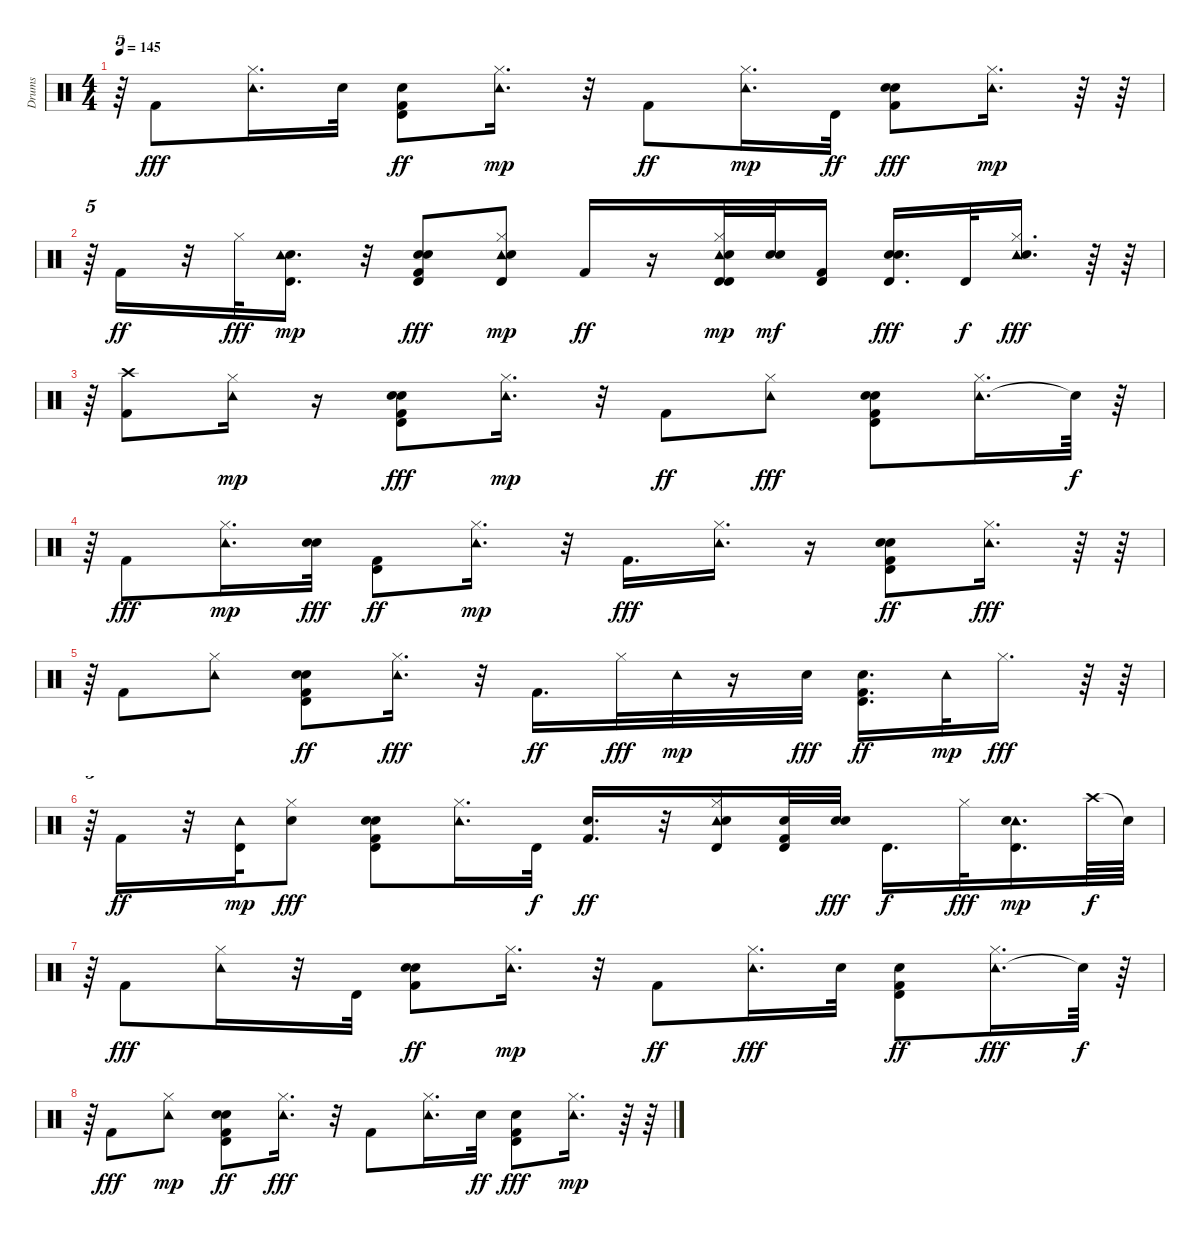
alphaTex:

\track ("Drums" "Drums") {instrument percussion}
\staff {score}
\articulation defaults
\ts (4 4)
\tempo 145
\clef neutral
\ks c
r.64{tu (5 4) dy fff} "Kick (hit) 2".8 ("Tambourine (hit)" "Hi-Hat (closed)").16{d} "Hand Clap (hit)".32 ("Kick (hit) 2" "Snare (hit) 2" "Timbale high (hit)").8{dy ff} ("Hi-Hat (closed)" "Tambourine (hit)").16{d dy mp} r.32 "Kick (hit) 2".8{dy ff} ("Hi-Hat (closed)" "Tambourine (hit)").16{d dy mp} "Timbale high (hit)".32{dy ff} ("Kick (hit) 2" "Snare (hit) 2" "Hand Clap (hit)").8{dy fff} ("Hi-Hat (closed)" "Tambourine (hit)").16{d dy mp} r.64 r.64 |
r.64{tu (5 4)} "Kick (hit) 2".16{dy ff} r.32 "Hi-Hat (closed)".32{dy fff} ("Timbale high (hit)" "Snare (hit) 2" "Tambourine (hit)").16{d dy mp} r.32 ("Kick (hit) 2" "Snare (hit) 2" "Timbale high (hit)" "Hand Clap (hit)").8{dy fff} ("Hi-Hat (closed)" "Tambourine (hit)" "Timbale high (hit)" "Snare (hit) 2").8{dy mp} "Kick (hit) 2".16{dy ff} r.16 ("Tambourine (hit)" "Hi-Hat (closed)" "Snare (hit) 2" "Timbale high (hit)" "Timbale high (hit)").32{dy mp} ("Snare (hit) 2" "Snare (hit) 2").32{dy mf} ("Kick (hit) 2" "Timbale high (hit)").16 ("Timbale high (hit)" "Snare (hit) 2" "Hand Clap (hit)").16{d dy fff} "Timbale high (hit)".32{dy f} ("Tambourine (hit)" "Snare (hit) 2" "Hi-Hat (closed)").16{d dy fff} r.64 r.64 |
r.64{tu (5 4)} ("Kick (hit) 2" "Crash high (hit)").8 ("Hi-Hat (closed)" "Tambourine (hit)").16{dy mp} r.16 ("Snare (hit) 2" "Timbale high (hit)" "Kick (hit) 2" "Hand Clap (hit)").8{dy fff} ("Hi-Hat (closed)" "Tambourine (hit)").16{d dy mp} r.32 "Kick (hit) 2".8{dy ff} ("Tambourine (hit)" "Hi-Hat (closed)").8{dy fff} ("Snare (hit) 2" "Timbale high (hit)" "Kick (hit) 2" "Hand Clap (hit)").8 ("Tambourine (hit)" "Hi-Hat (closed)").16{d} "Snare (hit)"{t}.64{dy f} r.64 |
r.64{tu (5 4)} "Kick (hit) 2".8{dy fff} ("Hi-Hat (closed)" "Tambourine (hit)").16{d dy mp} ("Snare (hit) 2" "Hand Clap (hit)").32{dy fff} ("Kick (hit) 2" "Timbale high (hit)").8{dy ff} ("Hi-Hat (closed)" "Tambourine (hit)").16{d dy mp} r.32 "Kick (hit) 2".16{d dy fff} ("Tambourine (hit)" "Hi-Hat (closed)").16{d} r.16 ("Timbale high (hit)" "Kick (hit) 2" "Hand Clap (hit)" "Snare (hit) 2").8{dy ff} ("Tambourine (hit)" "Hi-Hat (closed)").16{d dy fff} r.64 r.64 |
r.64{tu (5 4)} "Kick (hit) 2".8 ("Tambourine (hit)" "Hi-Hat (closed)").8 ("Hand Clap (hit)" "Kick (hit) 2" "Snare (hit) 2" "Timbale high (hit)").8{dy ff} ("Tambourine (hit)" "Hi-Hat (closed)").16{d dy fff} r.32 "Kick (hit) 2".16{d dy ff} "Hi-Hat (closed)".32{dy fff} "Tambourine (hit)".32{dy mp} r.16 "Hand Clap (hit)".32{dy fff} ("Snare (hit) 2" "Timbale high (hit)" "Kick (hit) 2").16{d dy ff} "Tambourine (hit)".32{dy mp} "Hi-Hat (closed)".16{d dy fff} r.64 r.64 |
r.64{tu (5 4)} "Kick (hit) 2".16{dy ff} r.32 ("Tambourine (hit)" "Timbale high (hit)").32{dy mp} ("Snare (hit) 2" "Hi-Hat (closed)").8{dy fff} ("Kick (hit) 2" "Snare (hit) 2" "Timbale high (hit)" "Hand Clap (hit)").8 ("Tambourine (hit)" "Hi-Hat (closed)").16{d} "Timbale high (hit)".32{dy f} ("Snare (hit) 2" "Kick (hit) 2").16{d dy ff} r.32 ("Tambourine (hit)" "Snare (hit) 2" "Timbale high (hit)" "Hi-Hat (closed)").16 ("Kick (hit) 2" "Snare (hit) 2" "Timbale high (hit)").32 ("Snare (hit) 2" "Hand Clap (hit)").32{dy fff} "Timbale high (hit)".16{d dy f} "Hi-Hat (closed)".32{dy fff} ("Tambourine (hit)" "Timbale high (hit)" "Snare (hit) 2").16{d dy mp} "Crash high (hit)".64{dy f} "Snare (hit)"{t}.64 |
r.64{tu (5 4)} "Kick (hit) 2".8{dy fff} ("Tambourine (hit)" "Hi-Hat (closed)").16 r.32 "Timbale high (hit)".32 ("Hand Clap (hit)" "Kick (hit) 2" "Snare (hit) 2").8{dy ff} ("Hi-Hat (closed)" "Tambourine (hit)").16{d dy mp} r.32 "Kick (hit) 2".8{dy ff} ("Tambourine (hit)" "Hi-Hat (closed)").16{d dy fff} "Snare (hit) 2".32 ("Hand Clap (hit)" "Kick (hit) 2" "Timbale high (hit)").8{dy ff} ("Tambourine (hit)" "Hi-Hat (closed)").16{d dy fff} "Snare (hit)"{t}.64{dy f} r.64 |
r.64{tu (5 4)} "Kick (hit) 2".8{dy fff} ("Hi-Hat (closed)" "Tambourine (hit)").8{dy mp} ("Kick (hit) 2" "Snare (hit) 2" "Hand Clap (hit)" "Timbale high (hit)").8{dy ff} ("Tambourine (hit)" "Hi-Hat (closed)").16{d dy fff} r.32 "Kick (hit) 2".8 ("Tambourine (hit)" "Hi-Hat (closed)").16{d} "Snare (hit) 2".32{dy ff} ("Kick (hit) 2" "Hand Clap (hit)" "Timbale high (hit)").8{dy fff} ("Hi-Hat (closed)" "Tambourine (hit)").16{d dy mp} r.64 r.64
